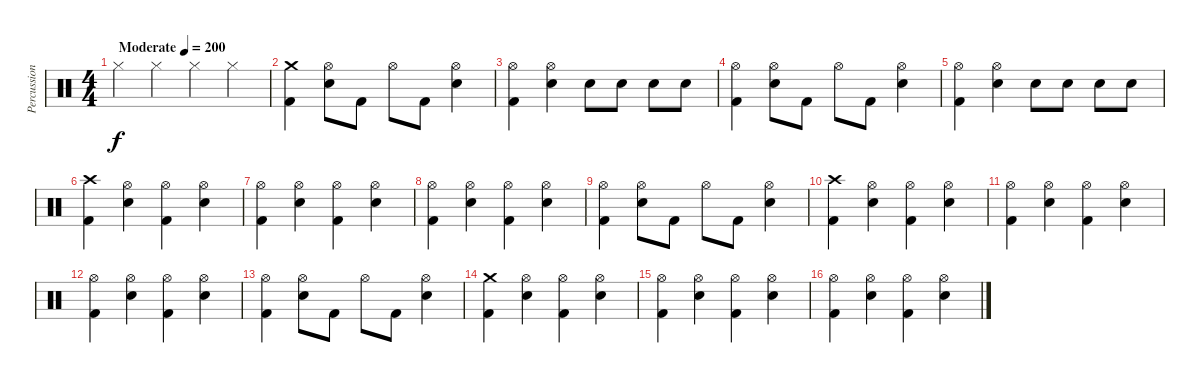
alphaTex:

\track ("Percussioni" "Percussion") {instrument percussion}
\staff {score}
\articulation defaults
\ts (4 4)
\tempo (200 "Moderate")
\clef neutral
\ks c "Hi-Hat (closed)".4{dy f} "Hi-Hat (closed)".4 "Hi-Hat (closed)".4 "Hi-Hat (closed)".4
|
("Crash medium (hit)" "Kick (hit) 2").4 ("Hi-Hat (open)" "Electric Snare (hit)").8 "Kick (hit) 2".8 "Hi-Hat (open)".8 "Kick (hit) 2".8 ("Hi-Hat (open)" "Electric Snare (hit)").4 |
("Hi-Hat (open)" "Kick (hit) 2").4 ("Hi-Hat (open)" "Electric Snare (hit)").4 "Electric Snare (hit)".8 "Electric Snare (hit)".8 "Electric Snare (hit)".8 "Electric Snare (hit)".8 |
("Hi-Hat (open)" "Kick (hit) 2").4 ("Hi-Hat (open)" "Electric Snare (hit)").8 "Kick (hit) 2".8 "Hi-Hat (open)".8 "Kick (hit) 2".8 ("Hi-Hat (open)" "Electric Snare (hit)").4 |
("Hi-Hat (open)" "Kick (hit) 2").4 ("Hi-Hat (open)" "Electric Snare (hit)").4 "Electric Snare (hit)".8 "Electric Snare (hit)".8 "Electric Snare (hit)".8 "Electric Snare (hit)".8 |
("Crash high (hit)" "Kick (hit) 2").4 ("Hi-Hat (open)" "Electric Snare (hit)").4 ("Hi-Hat (open)" "Kick (hit) 2").4 ("Hi-Hat (open)" "Electric Snare (hit)").4 |
("Hi-Hat (open)" "Kick (hit) 2").4 ("Hi-Hat (open)" "Electric Snare (hit)").4 ("Hi-Hat (open)" "Kick (hit) 2").4 ("Hi-Hat (open)" "Electric Snare (hit)").4 |
("Hi-Hat (open)" "Kick (hit) 2").4 ("Hi-Hat (open)" "Electric Snare (hit)").4 ("Hi-Hat (open)" "Kick (hit) 2").4 ("Hi-Hat (open)" "Electric Snare (hit)").4 |
("Hi-Hat (open)" "Kick (hit) 2").4 ("Hi-Hat (open)" "Electric Snare (hit)").8 "Kick (hit) 2".8 "Hi-Hat (open)".8 "Kick (hit) 2".8 ("Hi-Hat (open)" "Electric Snare (hit)").4 |
("Crash high (hit)" "Kick (hit) 2").4 ("Hi-Hat (open)" "Electric Snare (hit)").4 ("Hi-Hat (open)" "Kick (hit) 2").4 ("Hi-Hat (open)" "Electric Snare (hit)").4 |
("Hi-Hat (open)" "Kick (hit) 2").4 ("Hi-Hat (open)" "Electric Snare (hit)").4 ("Hi-Hat (open)" "Kick (hit) 2").4 ("Hi-Hat (open)" "Electric Snare (hit)").4 |
("Hi-Hat (open)" "Kick (hit) 2").4 ("Hi-Hat (open)" "Electric Snare (hit)").4 ("Hi-Hat (open)" "Kick (hit) 2").4 ("Hi-Hat (open)" "Electric Snare (hit)").4 |
("Hi-Hat (open)" "Kick (hit) 2").4 ("Hi-Hat (open)" "Electric Snare (hit)").8 "Kick (hit) 2".8 "Hi-Hat (open)".8 "Kick (hit) 2".8 ("Hi-Hat (open)" "Electric Snare (hit)").4 |
("Crash medium (hit)" "Kick (hit) 2").4 ("Hi-Hat (open)" "Electric Snare (hit)").4 ("Hi-Hat (open)" "Kick (hit) 2").4 ("Hi-Hat (open)" "Electric Snare (hit)").4 |
("Hi-Hat (open)" "Kick (hit) 2").4 ("Hi-Hat (open)" "Electric Snare (hit)").4 ("Hi-Hat (open)" "Kick (hit) 2").4 ("Hi-Hat (open)" "Electric Snare (hit)").4 |
("Hi-Hat (open)" "Kick (hit) 2").4 ("Hi-Hat (open)" "Electric Snare (hit)").4 ("Hi-Hat (open)" "Kick (hit) 2").4 ("Hi-Hat (open)" "Electric Snare (hit)").4
